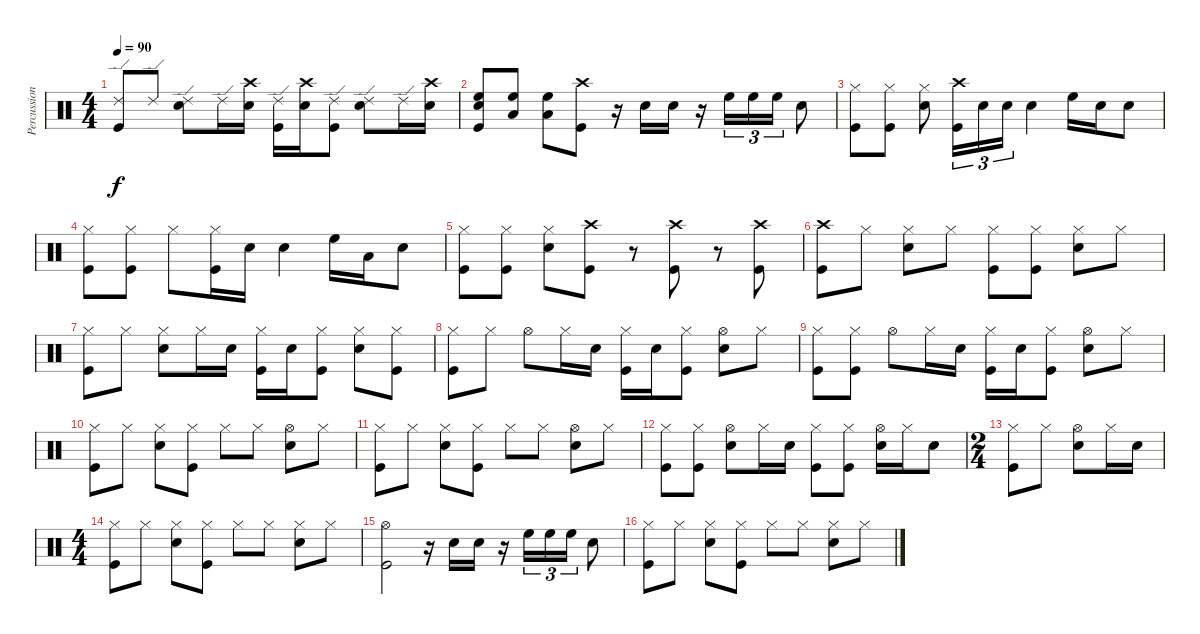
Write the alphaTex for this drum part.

\track ("Percussion" "Percussion") {instrument percussion}
\staff {score}
\articulation defaults
\ts (4 4)
\tempo 90
\clef neutral
\ks c
("Ride (edge) 2" "Kick (hit)").8{dy f} "Ride (edge) 2".8 ("Ride (edge) 2" "Snare (hit) 2").8 "Ride (edge) 2".16 ("Crash high (hit)" "Snare (hit) 2").16 ("Ride (edge) 2" "Kick (hit)").16 ("Crash high (hit)" "Snare (hit) 2").16 ("Ride (edge) 2" "Kick (hit)").8 ("Ride (edge) 2" "Snare (hit) 2").8 "Ride (edge) 2".16 ("Crash high (hit)" "Snare (hit) 2").16 |
("High Floor Tom (hit)" "Snare (hit) 2" "Kick (hit)").8 ("High Floor Tom (hit)" "Low Floor Tom (hit)").8 ("High Floor Tom (hit)" "Low Floor Tom (hit)").8 ("Crash high (hit)" "Kick (hit)").8 r.16 "Snare (hit) 2".16 "Snare (hit) 2".16 r.16 "High Floor Tom (hit)".16{tu (3 2)} "High Floor Tom (hit)".16{tu (3 2)} "High Floor Tom (hit)".16{tu (3 2)} "Snare (hit) 2".8 |
("Hi-Hat (closed)" "Kick (hit)").8 ("Hi-Hat (closed)" "Kick (hit)").8 ("Hi-Hat (closed)" "Snare (hit) 2").8 ("Crash high (hit)" "Kick (hit)").16{tu (3 2)} "Snare (hit) 2".16{tu (3 2)} "Snare (hit) 2".16{tu (3 2)} "Snare (hit) 2".4 "High Floor Tom (hit)".16 "Snare (hit) 2".16 "Snare (hit) 2".8 |
("Hi-Hat (closed)" "Kick (hit)").8 ("Hi-Hat (closed)" "Kick (hit)").8 "Hi-Hat (closed)".8 ("Hi-Hat (closed)" "Kick (hit)").16 "Snare (hit) 2".16 "Snare (hit) 2".4 "High Floor Tom (hit)".16 "Low Floor Tom (hit)".16 "Snare (hit) 2".8 |
("Hi-Hat (closed)" "Kick (hit)").8 ("Hi-Hat (closed)" "Kick (hit)").8 ("Hi-Hat (closed)" "Snare (hit) 2").8 ("Crash high (hit)" "Kick (hit)").8 r.8 ("Crash high (hit)" "Kick (hit)").8 r.8 ("Crash high (hit)" "Kick (hit)").8 |
("Crash high (hit)" "Kick (hit)").8 "Hi-Hat (closed)".8 ("Hi-Hat (closed)" "Snare (hit) 2").8 "Hi-Hat (closed)".8 ("Hi-Hat (closed)" "Kick (hit)").8 ("Hi-Hat (closed)" "Kick (hit)").8 ("Hi-Hat (closed)" "Snare (hit) 2").8 "Hi-Hat (closed)".8 |
("Hi-Hat (closed)" "Kick (hit)").8 "Hi-Hat (closed)".8 ("Hi-Hat (closed)" "Snare (hit) 2").8 "Hi-Hat (closed)".16 "Snare (hit) 2".16 ("Hi-Hat (closed)" "Kick (hit)").16 "Snare (hit) 2".16 ("Hi-Hat (closed)" "Kick (hit)").8 ("Hi-Hat (closed)" "Snare (hit) 2").8 ("Hi-Hat (closed)" "Kick (hit)").8 |
("Hi-Hat (closed)" "Kick (hit)").8 "Hi-Hat (closed)".8 "Hi-Hat (open)".8 "Hi-Hat (closed)".16 "Snare (hit) 2".16 ("Hi-Hat (closed)" "Kick (hit)").16 "Snare (hit) 2".16 ("Hi-Hat (closed)" "Kick (hit)").8 ("Hi-Hat (open)" "Snare (hit) 2").8 "Hi-Hat (closed)".8 |
("Hi-Hat (closed)" "Kick (hit)").8 ("Hi-Hat (closed)" "Kick (hit)").8 "Hi-Hat (open)".8 "Hi-Hat (closed)".16 "Snare (hit) 2".16 ("Hi-Hat (closed)" "Kick (hit)").16 "Snare (hit) 2".16 ("Hi-Hat (closed)" "Kick (hit)").8 ("Hi-Hat (open)" "Snare (hit) 2").8 "Hi-Hat (closed)".8 |
("Hi-Hat (closed)" "Kick (hit)").8 "Hi-Hat (closed)".8 ("Hi-Hat (closed)" "Snare (hit) 2").8 ("Hi-Hat (closed)" "Kick (hit)").8 "Hi-Hat (closed)".8 "Hi-Hat (closed)".8 ("Hi-Hat (open)" "Snare (hit) 2").8 "Hi-Hat (closed)".8 |
("Hi-Hat (closed)" "Kick (hit)").8 "Hi-Hat (closed)".8 ("Hi-Hat (closed)" "Snare (hit) 2").8 ("Hi-Hat (closed)" "Kick (hit)").8 "Hi-Hat (closed)".8 "Hi-Hat (closed)".8 ("Hi-Hat (open)" "Snare (hit) 2").8 "Hi-Hat (closed)".8 |
("Hi-Hat (closed)" "Kick (hit)").8 ("Hi-Hat (closed)" "Kick (hit)").8 ("Hi-Hat (open)" "Snare (hit) 2").8 "Hi-Hat (closed)".16 "Snare (hit) 2".16 ("Hi-Hat (closed)" "Kick (hit)").8 ("Hi-Hat (closed)" "Kick (hit)").8 ("Hi-Hat (open)" "Snare (hit) 2").16 "Hi-Hat (closed)".16 "Snare (hit) 2".8 |
\ts (2 4)
("Hi-Hat (closed)" "Kick (hit)").8 "Hi-Hat (closed)".8 ("Hi-Hat (open)" "Snare (hit) 2").8 "Hi-Hat (closed)".16 "Snare (hit) 2".16 |
\ts (4 4)
("Hi-Hat (closed)" "Kick (hit)").8 "Hi-Hat (closed)".8 ("Hi-Hat (closed)" "Snare (hit) 2").8 ("Hi-Hat (closed)" "Kick (hit)").8 "Hi-Hat (closed)".8 "Hi-Hat (closed)".8 ("Hi-Hat (closed)" "Snare (hit) 2").8 "Hi-Hat (closed)".8 |
("Hi-Hat (open)" "Kick (hit)").2 r.16 "Snare (hit) 2".16 "Snare (hit) 2".16 r.16 "High Floor Tom (hit)".16{tu (3 2)} "High Floor Tom (hit)".16{tu (3 2)} "High Floor Tom (hit)".16{tu (3 2)} "Snare (hit) 2".8 |
("Hi-Hat (closed)" "Kick (hit)").8 "Hi-Hat (closed)".8 ("Hi-Hat (closed)" "Snare (hit) 2").8 ("Hi-Hat (closed)" "Kick (hit)").8 "Hi-Hat (closed)".8 "Hi-Hat (closed)".8 ("Hi-Hat (closed)" "Snare (hit) 2").8 "Hi-Hat (closed)".8
